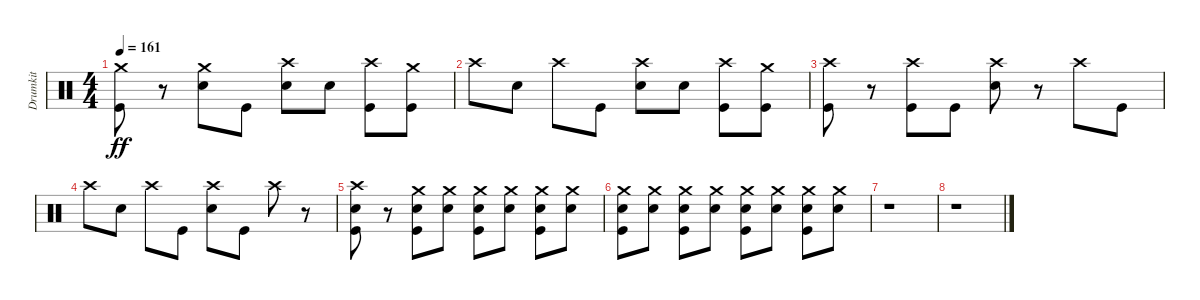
\track ("Drumkit" "Drumkit") {instrument percussion}
\staff {score}
\articulation defaults
\ts (4 4)
\tempo 161
\clef neutral
\ks c
("Crash medium (hit)" "Kick (hit)").8{dy ff} r.8 ("Snare (hit) 2" "Crash medium (hit)").8 "Kick (hit)".8 ("Snare (hit) 2" "Crash high (hit)").8 "Snare (hit) 2".8 ("Crash high (hit)" "Kick (hit)").8 ("Crash medium (hit)" "Kick (hit)").8 |
"Crash high (hit)".8 "Snare (hit) 2".8 "Crash high (hit)".8 "Kick (hit)".8 ("Crash high (hit)" "Snare (hit) 2").8 "Snare (hit) 2".8 ("Crash high (hit)" "Kick (hit)").8 ("Kick (hit)" "Crash medium (hit)").8 |
("Crash high (hit)" "Kick (hit)").8 r.8 ("Kick (hit)" "Crash high (hit)").8 "Kick (hit)".8 ("Crash high (hit)" "Snare (hit) 2").8 r.8 "Crash high (hit)".8 "Kick (hit)".8 |
"Crash high (hit)".8 "Snare (hit) 2".8 "Crash high (hit)".8 "Kick (hit)".8 ("Snare (hit) 2" "Crash high (hit)").8 "Kick (hit)".8 "Crash high (hit)".8 r.8 |
("Kick (hit)" "Snare (hit) 2" "Crash high (hit)").8 r.8 ("Crash medium (hit)" "Snare (hit) 2" "Kick (hit)").8 ("Snare (hit) 2" "Crash medium (hit)").8 ("Snare (hit) 2" "Crash medium (hit)" "Kick (hit)").8 ("Snare (hit) 2" "Crash medium (hit)").8 ("Snare (hit) 2" "Crash medium (hit)" "Kick (hit)").8 ("Snare (hit) 2" "Crash medium (hit)").8 |
("Crash medium (hit)" "Snare (hit) 2" "Kick (hit)").8 ("Snare (hit) 2" "Crash medium (hit)").8 ("Snare (hit) 2" "Crash medium (hit)" "Kick (hit)").8 ("Snare (hit) 2" "Crash medium (hit)").8 ("Snare (hit) 2" "Crash medium (hit)" "Kick (hit)").8 ("Snare (hit) 2" "Crash medium (hit)").8 ("Crash medium (hit)" "Snare (hit) 2" "Kick (hit)").8 ("Snare (hit) 2" "Crash medium (hit)").8 |
r.1 |
r.1
